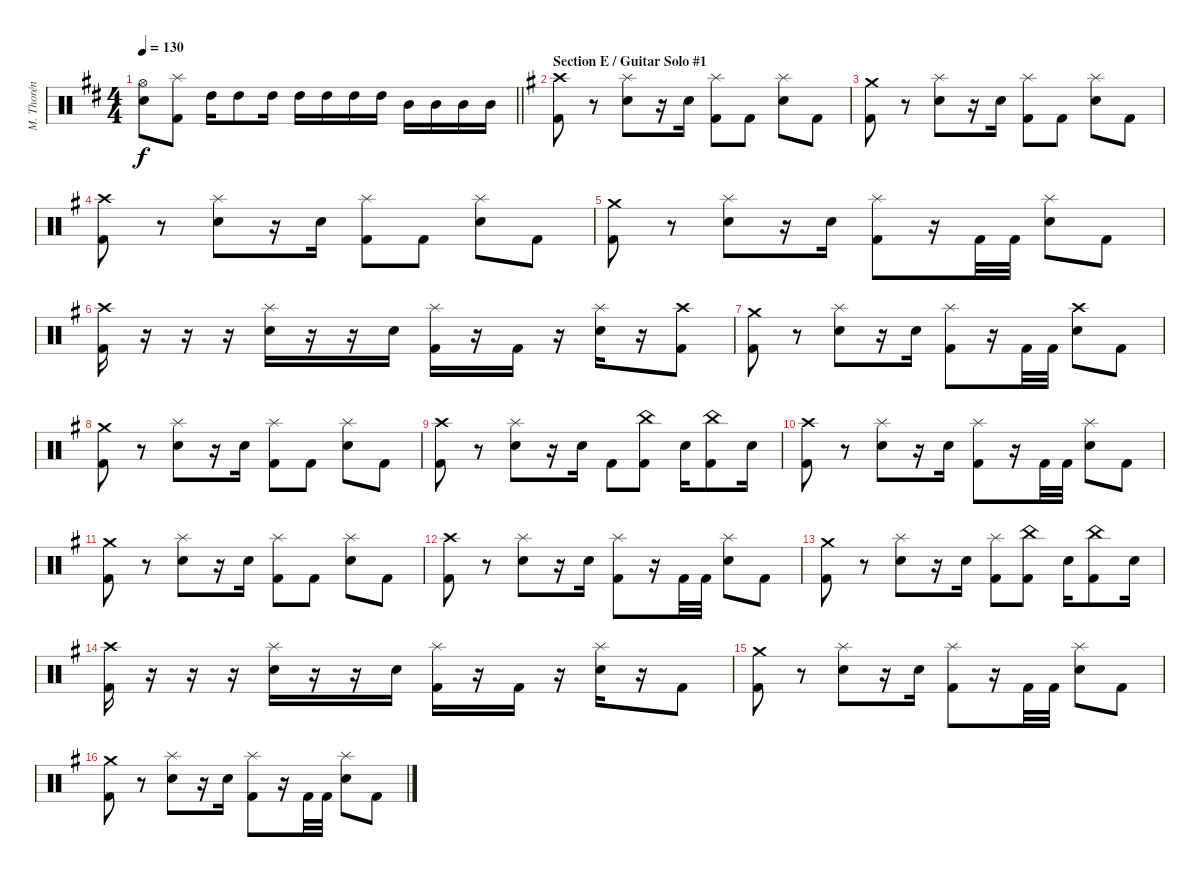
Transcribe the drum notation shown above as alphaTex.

\track ("M. Thorén (Drums)" "M. Thorén ") {instrument percussion}
\staff {score}
\articulation defaults
\ts (4 4)
\tempo 130
\clef neutral
\barLineRight lightlight
\ks bminor
("Hi-Hat (open)" "Electric Snare (hit)").8{dy f} ("Splash (hit)" "Kick (hit) 2").8 "High Tom (hit)".16 "High Tom (hit)".8 "High Tom (hit)".16 "High Tom (hit)".16 "High Tom (hit)".16 "High Tom (hit)".16 "High Tom (hit)".16 "Mid Tom (hit)".16 "Mid Tom (hit)".16 "Mid Tom (hit)".16 "Mid Tom (hit)".16 |
\section ("" "Section E / Guitar Solo #1")
\ks eminor
("Crash high (hit)" "Kick (hit) 2").8 r.8 ("Splash (hit)" "Electric Snare (hit)").8 r.16 "Electric Snare (hit)".16 ("Splash (hit)" "Kick (hit) 2").8 "Kick (hit) 2".8 ("Splash (hit)" "Electric Snare (hit)").8 "Kick (hit) 2".8 |
("Crash medium (hit)" "Kick (hit) 2").8 r.8 ("Splash (hit)" "Electric Snare (hit)").8 r.16 "Electric Snare (hit)".16 ("Splash (hit)" "Kick (hit) 2").8 "Kick (hit) 2".8 ("Splash (hit)" "Electric Snare (hit)").8 "Kick (hit) 2".8 |
("Crash high (hit)" "Kick (hit) 2").8 r.8 ("Splash (hit)" "Electric Snare (hit)").8 r.16 "Electric Snare (hit)".16 ("Splash (hit)" "Kick (hit) 2").8 "Kick (hit) 2".8 ("Splash (hit)" "Electric Snare (hit)").8 "Kick (hit) 2".8 |
("Crash medium (hit)" "Kick (hit) 2").8 r.8 ("Splash (hit)" "Electric Snare (hit)").8 r.16 "Electric Snare (hit)".16 ("Splash (hit)" "Kick (hit) 2").8 r.16 "Kick (hit) 2".32 "Kick (hit) 2".32 ("Splash (hit)" "Electric Snare (hit)").8 "Kick (hit) 2".8 |
("Crash high (hit)" "Kick (hit) 2").16 r.16 r.16 r.16 ("Splash (hit)" "Electric Snare (hit)").16 r.16 r.16 "Electric Snare (hit)".16 ("Splash (hit)" "Kick (hit) 2").16 r.16 "Kick (hit) 2".16 r.16 ("Splash (hit)" "Electric Snare (hit)").16 r.16 ("Crash high (hit)" "Kick (hit) 2").8 |
("Crash medium (hit)" "Kick (hit) 2").8 r.8 ("Splash (hit)" "Electric Snare (hit)").8 r.16 "Electric Snare (hit)".16 ("Splash (hit)" "Kick (hit) 2").8 r.16 "Kick (hit) 2".32 "Kick (hit) 2".32 ("Crash high (hit)" "Electric Snare (hit)").8 "Kick (hit) 2".8 |
("Crash medium (hit)" "Kick (hit) 2").8 r.8 ("Splash (hit)" "Electric Snare (hit)").8 r.16 "Electric Snare (hit)".16 ("Splash (hit)" "Kick (hit) 2").8 "Kick (hit) 2".8 ("Splash (hit)" "Electric Snare (hit)").8 "Kick (hit) 2".8 |
("Crash high (hit)" "Kick (hit) 2").8 r.8 ("Splash (hit)" "Electric Snare (hit)").8 r.16 "Electric Snare (hit)".16 "Kick (hit) 2".8 ("China (hit)" "Kick (hit) 2").8 "Electric Snare (hit)".16 ("China (hit)" "Kick (hit) 2").8 "Electric Snare (hit)".16 |
("Crash high (hit)" "Kick (hit) 2").8 r.8 ("Splash (hit)" "Electric Snare (hit)").8 r.16 "Electric Snare (hit)".16 ("Splash (hit)" "Kick (hit) 2").8 r.16 "Kick (hit) 2".32 "Kick (hit) 2".32 ("Splash (hit)" "Electric Snare (hit)").8 "Kick (hit) 2".8 |
("Crash medium (hit)" "Kick (hit) 2").8 r.8 ("Splash (hit)" "Electric Snare (hit)").8 r.16 "Electric Snare (hit)".16 ("Splash (hit)" "Kick (hit) 2").8 "Kick (hit) 2".8 ("Splash (hit)" "Electric Snare (hit)").8 "Kick (hit) 2".8 |
("Crash high (hit)" "Kick (hit) 2").8 r.8 ("Splash (hit)" "Electric Snare (hit)").8 r.16 "Electric Snare (hit)".16 ("Splash (hit)" "Kick (hit) 2").8 r.16 "Kick (hit) 2".32 "Kick (hit) 2".32 ("Splash (hit)" "Electric Snare (hit)").8 "Kick (hit) 2".8 |
("Crash medium (hit)" "Kick (hit) 2").8 r.8 ("Splash (hit)" "Electric Snare (hit)").8 r.16 "Electric Snare (hit)".16 ("Splash (hit)" "Kick (hit) 2").8 ("China (hit)" "Kick (hit) 2").8 "Electric Snare (hit)".16 ("China (hit)" "Kick (hit) 2").8 "Electric Snare (hit)".16 |
("Crash high (hit)" "Kick (hit) 2").16 r.16 r.16 r.16 ("Splash (hit)" "Electric Snare (hit)").16 r.16 r.16 "Electric Snare (hit)".16 ("Splash (hit)" "Kick (hit) 2").16 r.16 "Kick (hit) 2".16 r.16 ("Splash (hit)" "Electric Snare (hit)").16 r.16 "Kick (hit) 2".8 |
("Crash medium (hit)" "Kick (hit) 2").8 r.8 ("Splash (hit)" "Electric Snare (hit)").8 r.16 "Electric Snare (hit)".16 ("Splash (hit)" "Kick (hit) 2").8 r.16 "Kick (hit) 2".32 "Kick (hit) 2".32 ("Splash (hit)" "Electric Snare (hit)").8 "Kick (hit) 2".8 |
("Crash medium (hit)" "Kick (hit) 2").8 r.8 ("Splash (hit)" "Electric Snare (hit)").8 r.16 "Electric Snare (hit)".16 ("Splash (hit)" "Kick (hit) 2").8 r.16 "Kick (hit) 2".32 "Kick (hit) 2".32 ("Splash (hit)" "Electric Snare (hit)").8 "Kick (hit) 2".8
